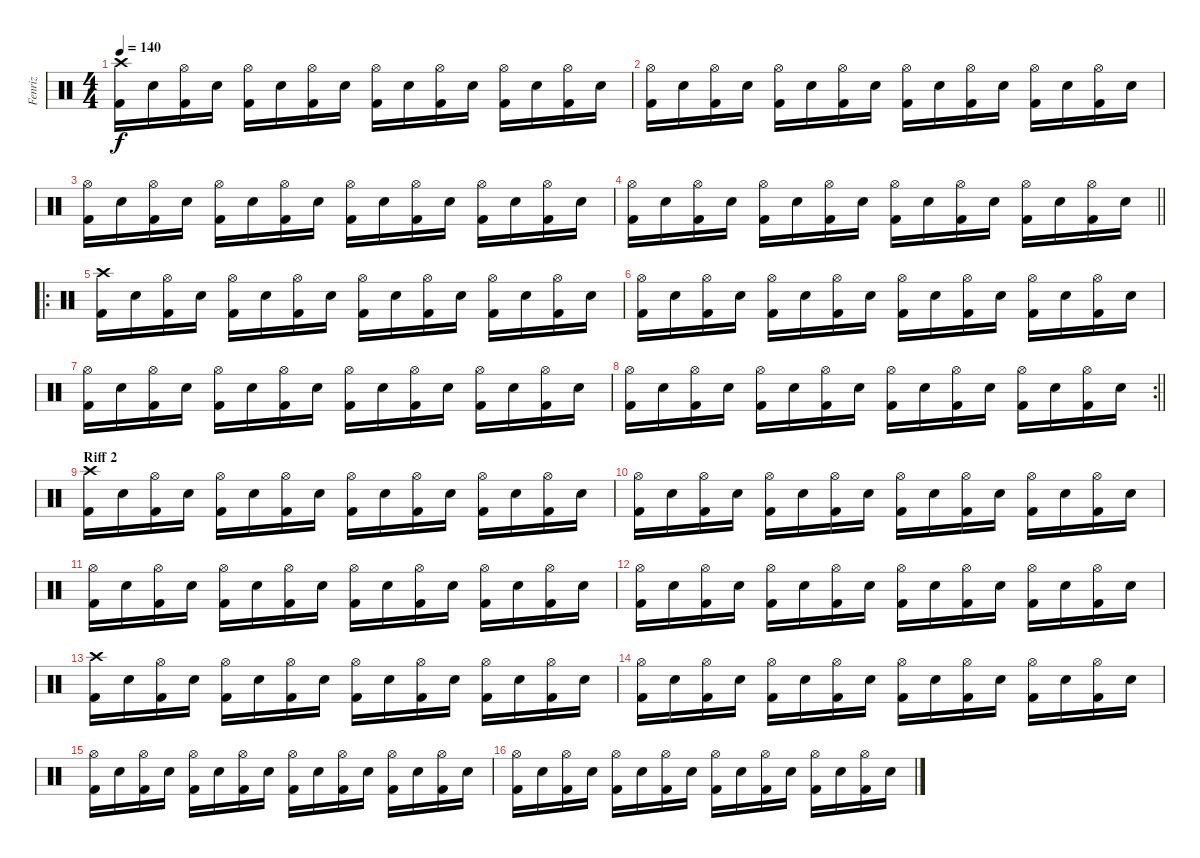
\track ("Fenriz" "Fenriz") {instrument percussion}
\staff {score}
\articulation defaults
\ts (4 4)
\tempo 140
\clef neutral
\ks c
("Kick (hit) 2" "Crash high (hit)").16{dy f} "Electric Snare (hit)".16 ("Kick (hit) 2" "Hi-Hat (open)").16 "Electric Snare (hit)".16 ("Kick (hit) 2" "Hi-Hat (open)").16 "Electric Snare (hit)".16 ("Kick (hit) 2" "Hi-Hat (open)").16 "Electric Snare (hit)".16 ("Kick (hit) 2" "Hi-Hat (open)").16 "Electric Snare (hit)".16 ("Kick (hit) 2" "Hi-Hat (open)").16 "Electric Snare (hit)".16 ("Kick (hit) 2" "Hi-Hat (open)").16 "Electric Snare (hit)".16 ("Kick (hit) 2" "Hi-Hat (open)").16 "Electric Snare (hit)".16 |
("Kick (hit) 2" "Hi-Hat (open)").16 "Electric Snare (hit)".16 ("Kick (hit) 2" "Hi-Hat (open)").16 "Electric Snare (hit)".16 ("Kick (hit) 2" "Hi-Hat (open)").16 "Electric Snare (hit)".16 ("Kick (hit) 2" "Hi-Hat (open)").16 "Electric Snare (hit)".16 ("Kick (hit) 2" "Hi-Hat (open)").16 "Electric Snare (hit)".16 ("Kick (hit) 2" "Hi-Hat (open)").16 "Electric Snare (hit)".16 ("Kick (hit) 2" "Hi-Hat (open)").16 "Electric Snare (hit)".16 ("Kick (hit) 2" "Hi-Hat (open)").16 "Electric Snare (hit)".16 |
("Kick (hit) 2" "Hi-Hat (open)").16 "Electric Snare (hit)".16 ("Kick (hit) 2" "Hi-Hat (open)").16 "Electric Snare (hit)".16 ("Kick (hit) 2" "Hi-Hat (open)").16 "Electric Snare (hit)".16 ("Kick (hit) 2" "Hi-Hat (open)").16 "Electric Snare (hit)".16 ("Kick (hit) 2" "Hi-Hat (open)").16 "Electric Snare (hit)".16 ("Kick (hit) 2" "Hi-Hat (open)").16 "Electric Snare (hit)".16 ("Kick (hit) 2" "Hi-Hat (open)").16 "Electric Snare (hit)".16 ("Kick (hit) 2" "Hi-Hat (open)").16 "Electric Snare (hit)".16 |
\barLineRight lightlight
("Kick (hit) 2" "Hi-Hat (open)").16 "Electric Snare (hit)".16 ("Kick (hit) 2" "Hi-Hat (open)").16 "Electric Snare (hit)".16 ("Kick (hit) 2" "Hi-Hat (open)").16 "Electric Snare (hit)".16 ("Kick (hit) 2" "Hi-Hat (open)").16 "Electric Snare (hit)".16 ("Kick (hit) 2" "Hi-Hat (open)").16 "Electric Snare (hit)".16 ("Kick (hit) 2" "Hi-Hat (open)").16 "Electric Snare (hit)".16 ("Kick (hit) 2" "Hi-Hat (open)").16 "Electric Snare (hit)".16 ("Kick (hit) 2" "Hi-Hat (open)").16 "Electric Snare (hit)".16 |
\ro
("Kick (hit) 2" "Crash high (hit)").16 "Electric Snare (hit)".16 ("Kick (hit) 2" "Hi-Hat (open)").16 "Electric Snare (hit)".16 ("Kick (hit) 2" "Hi-Hat (open)").16 "Electric Snare (hit)".16 ("Kick (hit) 2" "Hi-Hat (open)").16 "Electric Snare (hit)".16 ("Kick (hit) 2" "Hi-Hat (open)").16 "Electric Snare (hit)".16 ("Kick (hit) 2" "Hi-Hat (open)").16 "Electric Snare (hit)".16 ("Kick (hit) 2" "Hi-Hat (open)").16 "Electric Snare (hit)".16 ("Kick (hit) 2" "Hi-Hat (open)").16 "Electric Snare (hit)".16 |
("Kick (hit) 2" "Hi-Hat (open)").16 "Electric Snare (hit)".16 ("Kick (hit) 2" "Hi-Hat (open)").16 "Electric Snare (hit)".16 ("Kick (hit) 2" "Hi-Hat (open)").16 "Electric Snare (hit)".16 ("Kick (hit) 2" "Hi-Hat (open)").16 "Electric Snare (hit)".16 ("Kick (hit) 2" "Hi-Hat (open)").16 "Electric Snare (hit)".16 ("Kick (hit) 2" "Hi-Hat (open)").16 "Electric Snare (hit)".16 ("Kick (hit) 2" "Hi-Hat (open)").16 "Electric Snare (hit)".16 ("Kick (hit) 2" "Hi-Hat (open)").16 "Electric Snare (hit)".16 |
("Kick (hit) 2" "Hi-Hat (open)").16 "Electric Snare (hit)".16 ("Kick (hit) 2" "Hi-Hat (open)").16 "Electric Snare (hit)".16 ("Kick (hit) 2" "Hi-Hat (open)").16 "Electric Snare (hit)".16 ("Kick (hit) 2" "Hi-Hat (open)").16 "Electric Snare (hit)".16 ("Kick (hit) 2" "Hi-Hat (open)").16 "Electric Snare (hit)".16 ("Kick (hit) 2" "Hi-Hat (open)").16 "Electric Snare (hit)".16 ("Kick (hit) 2" "Hi-Hat (open)").16 "Electric Snare (hit)".16 ("Kick (hit) 2" "Hi-Hat (open)").16 "Electric Snare (hit)".16 |
\rc 2
\barLineRight lightlight
("Kick (hit) 2" "Hi-Hat (open)").16 "Electric Snare (hit)".16 ("Kick (hit) 2" "Hi-Hat (open)").16 "Electric Snare (hit)".16 ("Kick (hit) 2" "Hi-Hat (open)").16 "Electric Snare (hit)".16 ("Kick (hit) 2" "Hi-Hat (open)").16 "Electric Snare (hit)".16 ("Kick (hit) 2" "Hi-Hat (open)").16 "Electric Snare (hit)".16 ("Kick (hit) 2" "Hi-Hat (open)").16 "Electric Snare (hit)".16 ("Kick (hit) 2" "Hi-Hat (open)").16 "Electric Snare (hit)".16 ("Kick (hit) 2" "Hi-Hat (open)").16 "Electric Snare (hit)".16 |
\section ("" "Riff 2")
("Kick (hit) 2" "Crash high (hit)").16 "Electric Snare (hit)".16 ("Kick (hit) 2" "Hi-Hat (open)").16 "Electric Snare (hit)".16 ("Kick (hit) 2" "Hi-Hat (open)").16 "Electric Snare (hit)".16 ("Kick (hit) 2" "Hi-Hat (open)").16 "Electric Snare (hit)".16 ("Kick (hit) 2" "Hi-Hat (open)").16 "Electric Snare (hit)".16 ("Kick (hit) 2" "Hi-Hat (open)").16 "Electric Snare (hit)".16 ("Kick (hit) 2" "Hi-Hat (open)").16 "Electric Snare (hit)".16 ("Kick (hit) 2" "Hi-Hat (open)").16 "Electric Snare (hit)".16 |
("Kick (hit) 2" "Hi-Hat (open)").16 "Electric Snare (hit)".16 ("Kick (hit) 2" "Hi-Hat (open)").16 "Electric Snare (hit)".16 ("Kick (hit) 2" "Hi-Hat (open)").16 "Electric Snare (hit)".16 ("Kick (hit) 2" "Hi-Hat (open)").16 "Electric Snare (hit)".16 ("Kick (hit) 2" "Hi-Hat (open)").16 "Electric Snare (hit)".16 ("Kick (hit) 2" "Hi-Hat (open)").16 "Electric Snare (hit)".16 ("Kick (hit) 2" "Hi-Hat (open)").16 "Electric Snare (hit)".16 ("Kick (hit) 2" "Hi-Hat (open)").16 "Electric Snare (hit)".16 |
("Kick (hit) 2" "Hi-Hat (open)").16 "Electric Snare (hit)".16 ("Kick (hit) 2" "Hi-Hat (open)").16 "Electric Snare (hit)".16 ("Kick (hit) 2" "Hi-Hat (open)").16 "Electric Snare (hit)".16 ("Kick (hit) 2" "Hi-Hat (open)").16 "Electric Snare (hit)".16 ("Kick (hit) 2" "Hi-Hat (open)").16 "Electric Snare (hit)".16 ("Kick (hit) 2" "Hi-Hat (open)").16 "Electric Snare (hit)".16 ("Kick (hit) 2" "Hi-Hat (open)").16 "Electric Snare (hit)".16 ("Kick (hit) 2" "Hi-Hat (open)").16 "Electric Snare (hit)".16 |
("Kick (hit) 2" "Hi-Hat (open)").16 "Electric Snare (hit)".16 ("Kick (hit) 2" "Hi-Hat (open)").16 "Electric Snare (hit)".16 ("Kick (hit) 2" "Hi-Hat (open)").16 "Electric Snare (hit)".16 ("Kick (hit) 2" "Hi-Hat (open)").16 "Electric Snare (hit)".16 ("Kick (hit) 2" "Hi-Hat (open)").16 "Electric Snare (hit)".16 ("Kick (hit) 2" "Hi-Hat (open)").16 "Electric Snare (hit)".16 ("Kick (hit) 2" "Hi-Hat (open)").16 "Electric Snare (hit)".16 ("Kick (hit) 2" "Hi-Hat (open)").16 "Electric Snare (hit)".16 |
("Kick (hit) 2" "Crash high (hit)").16 "Electric Snare (hit)".16 ("Kick (hit) 2" "Hi-Hat (open)").16 "Electric Snare (hit)".16 ("Kick (hit) 2" "Hi-Hat (open)").16 "Electric Snare (hit)".16 ("Kick (hit) 2" "Hi-Hat (open)").16 "Electric Snare (hit)".16 ("Kick (hit) 2" "Hi-Hat (open)").16 "Electric Snare (hit)".16 ("Kick (hit) 2" "Hi-Hat (open)").16 "Electric Snare (hit)".16 ("Kick (hit) 2" "Hi-Hat (open)").16 "Electric Snare (hit)".16 ("Kick (hit) 2" "Hi-Hat (open)").16 "Electric Snare (hit)".16 |
("Kick (hit) 2" "Hi-Hat (open)").16 "Electric Snare (hit)".16 ("Kick (hit) 2" "Hi-Hat (open)").16 "Electric Snare (hit)".16 ("Kick (hit) 2" "Hi-Hat (open)").16 "Electric Snare (hit)".16 ("Kick (hit) 2" "Hi-Hat (open)").16 "Electric Snare (hit)".16 ("Kick (hit) 2" "Hi-Hat (open)").16 "Electric Snare (hit)".16 ("Kick (hit) 2" "Hi-Hat (open)").16 "Electric Snare (hit)".16 ("Kick (hit) 2" "Hi-Hat (open)").16 "Electric Snare (hit)".16 ("Kick (hit) 2" "Hi-Hat (open)").16 "Electric Snare (hit)".16 |
("Kick (hit) 2" "Hi-Hat (open)").16 "Electric Snare (hit)".16 ("Kick (hit) 2" "Hi-Hat (open)").16 "Electric Snare (hit)".16 ("Kick (hit) 2" "Hi-Hat (open)").16 "Electric Snare (hit)".16 ("Kick (hit) 2" "Hi-Hat (open)").16 "Electric Snare (hit)".16 ("Kick (hit) 2" "Hi-Hat (open)").16 "Electric Snare (hit)".16 ("Kick (hit) 2" "Hi-Hat (open)").16 "Electric Snare (hit)".16 ("Kick (hit) 2" "Hi-Hat (open)").16 "Electric Snare (hit)".16 ("Kick (hit) 2" "Hi-Hat (open)").16 "Electric Snare (hit)".16 |
("Kick (hit) 2" "Hi-Hat (open)").16 "Electric Snare (hit)".16 ("Kick (hit) 2" "Hi-Hat (open)").16 "Electric Snare (hit)".16 ("Kick (hit) 2" "Hi-Hat (open)").16 "Electric Snare (hit)".16 ("Kick (hit) 2" "Hi-Hat (open)").16 "Electric Snare (hit)".16 ("Kick (hit) 2" "Hi-Hat (open)").16 "Electric Snare (hit)".16 ("Kick (hit) 2" "Hi-Hat (open)").16 "Electric Snare (hit)".16 ("Kick (hit) 2" "Hi-Hat (open)").16 "Electric Snare (hit)".16 ("Kick (hit) 2" "Hi-Hat (open)").16 "Electric Snare (hit)".16
